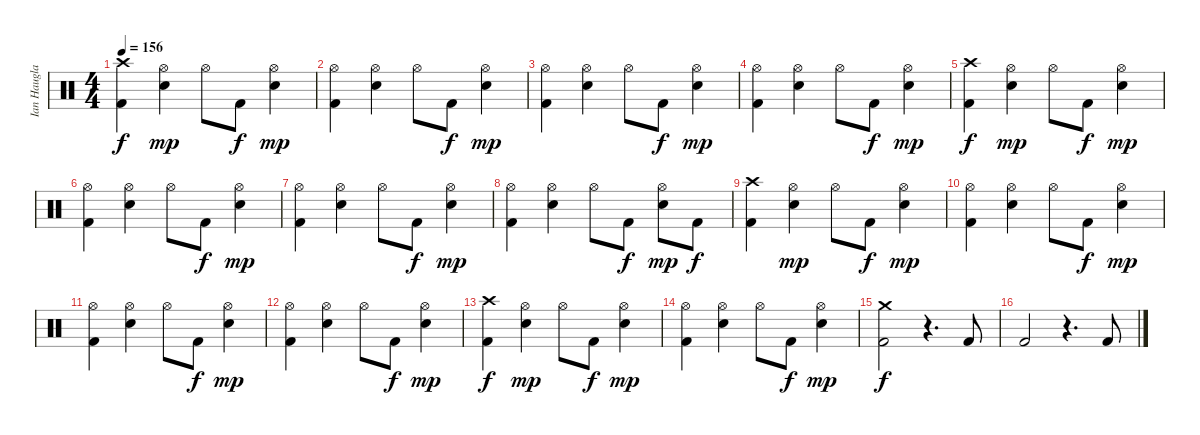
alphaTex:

\track ("Ian Haugland" "Ian Haugla") {instrument percussion}
\staff {score}
\articulation defaults
\ts (4 4)
\tempo 156
\clef neutral
\ks c
("Kick (hit) 2" "Crash high (hit)").4{dy f} ("Hi-Hat (open)" "Snare (hit) 2").4{dy mp} "Hi-Hat (open)".8 "Kick (hit) 2".8{dy f} ("Hi-Hat (open)" "Snare (hit) 2").4{dy mp} |
("Kick (hit) 2" "Hi-Hat (open)").4 ("Hi-Hat (open)" "Snare (hit) 2").4 "Hi-Hat (open)".8 "Kick (hit) 2".8{dy f} ("Hi-Hat (open)" "Snare (hit) 2").4{dy mp} |
("Kick (hit) 2" "Hi-Hat (open)").4 ("Hi-Hat (open)" "Snare (hit) 2").4 "Hi-Hat (open)".8 "Kick (hit) 2".8{dy f} ("Hi-Hat (open)" "Snare (hit) 2").4{dy mp} |
("Kick (hit) 2" "Hi-Hat (open)").4 ("Hi-Hat (open)" "Snare (hit) 2").4 "Hi-Hat (open)".8 "Kick (hit) 2".8{dy f} ("Hi-Hat (open)" "Snare (hit) 2").4{dy mp} |
("Kick (hit) 2" "Crash high (hit)").4{dy f} ("Hi-Hat (open)" "Snare (hit) 2").4{dy mp} "Hi-Hat (open)".8 "Kick (hit) 2".8{dy f} ("Hi-Hat (open)" "Snare (hit) 2").4{dy mp} |
("Kick (hit) 2" "Hi-Hat (open)").4 ("Hi-Hat (open)" "Snare (hit) 2").4 "Hi-Hat (open)".8 "Kick (hit) 2".8{dy f} ("Hi-Hat (open)" "Snare (hit) 2").4{dy mp} |
("Kick (hit) 2" "Hi-Hat (open)").4 ("Hi-Hat (open)" "Snare (hit) 2").4 "Hi-Hat (open)".8 "Kick (hit) 2".8{dy f} ("Hi-Hat (open)" "Snare (hit) 2").4{dy mp} |
("Kick (hit) 2" "Hi-Hat (open)").4 ("Hi-Hat (open)" "Snare (hit) 2").4 "Hi-Hat (open)".8 "Kick (hit) 2".8{dy f} ("Hi-Hat (open)" "Snare (hit) 2").8{dy mp} "Kick (hit) 2".8{dy f} |
("Kick (hit) 2" "Crash high (hit)").4 ("Hi-Hat (open)" "Snare (hit) 2").4{dy mp} "Hi-Hat (open)".8 "Kick (hit) 2".8{dy f} ("Hi-Hat (open)" "Snare (hit) 2").4{dy mp} |
("Kick (hit) 2" "Hi-Hat (open)").4 ("Hi-Hat (open)" "Snare (hit) 2").4 "Hi-Hat (open)".8 "Kick (hit) 2".8{dy f} ("Hi-Hat (open)" "Snare (hit) 2").4{dy mp} |
("Kick (hit) 2" "Hi-Hat (open)").4 ("Hi-Hat (open)" "Snare (hit) 2").4 "Hi-Hat (open)".8 "Kick (hit) 2".8{dy f} ("Hi-Hat (open)" "Snare (hit) 2").4{dy mp} |
("Kick (hit) 2" "Hi-Hat (open)").4 ("Hi-Hat (open)" "Snare (hit) 2").4 "Hi-Hat (open)".8 "Kick (hit) 2".8{dy f} ("Hi-Hat (open)" "Snare (hit) 2").4{dy mp} |
("Kick (hit) 2" "Crash high (hit)").4{dy f} ("Hi-Hat (open)" "Snare (hit) 2").4{dy mp} "Hi-Hat (open)".8 "Kick (hit) 2".8{dy f} ("Hi-Hat (open)" "Snare (hit) 2").4{dy mp} |
("Kick (hit) 2" "Hi-Hat (open)").4 ("Hi-Hat (open)" "Snare (hit) 2").4 "Hi-Hat (open)".8 "Kick (hit) 2".8{dy f} ("Hi-Hat (open)" "Snare (hit) 2").4{dy mp} |
("Kick (hit) 2" "Crash medium (hit)").2{dy f} r.4{d} "Kick (hit) 2".8 |
"Kick (hit) 2".2 r.4{d} "Kick (hit) 2".8
